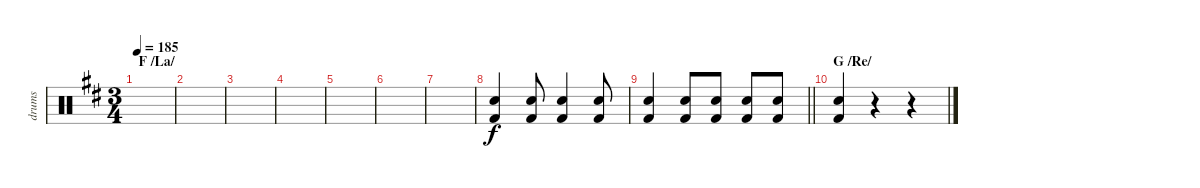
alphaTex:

\track ("drums" "drums") {instrument percussion}
\staff {score}
\articulation defaults
\ts (3 4)
\section ("" "F /La/")
\tempo 185
\clef neutral
\ks d
|
|
|
|
|
|
|
("Kick (hit) 2" "Electric Snare (hit)").4 ("Kick (hit) 2" "Electric Snare (hit)").8 ("Kick (hit) 2" "Electric Snare (hit)").4 ("Kick (hit) 2" "Electric Snare (hit)").8 |
\barLineRight lightlight
("Kick (hit) 2" "Electric Snare (hit)").4 ("Kick (hit) 2" "Electric Snare (hit)").8 ("Kick (hit) 2" "Electric Snare (hit)").8 ("Kick (hit) 2" "Electric Snare (hit)").8 ("Kick (hit) 2" "Electric Snare (hit)").8 |
\section ("" "G /Re/")
("Kick (hit) 2" "Electric Snare (hit)").4 r.4 r.4
